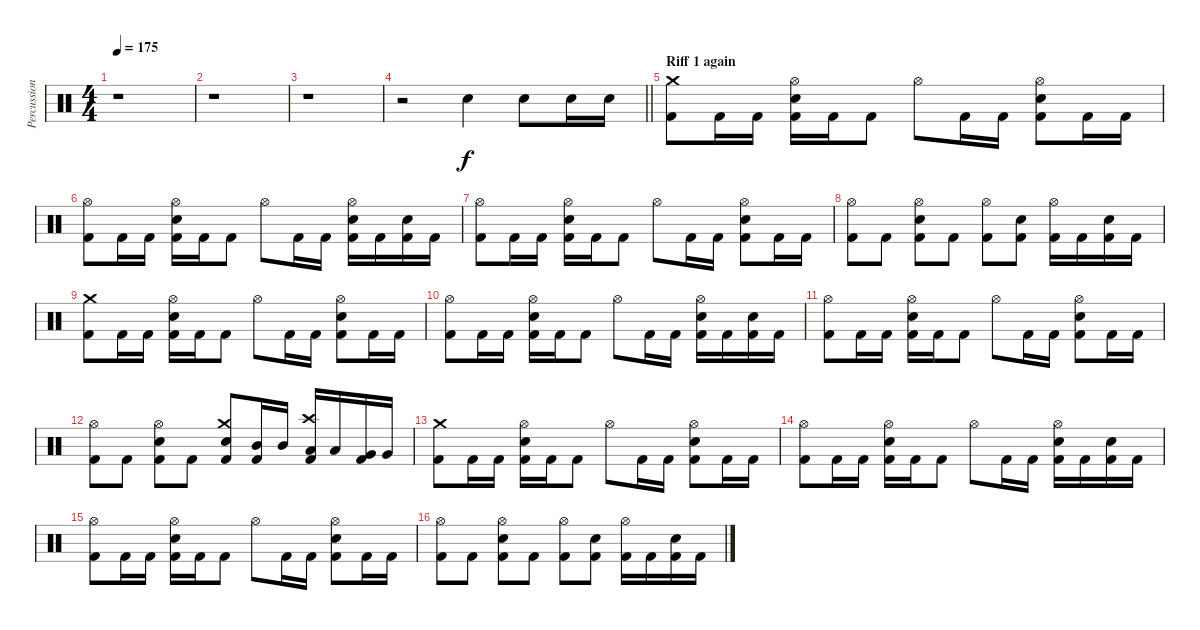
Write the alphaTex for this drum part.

\track ("Percussion" "Percussion") {instrument percussion}
\staff {score}
\articulation defaults
\ts (4 4)
\tempo 175
\clef neutral
\ks c
r.1{dy f} |
r.1 |
r.1 |
\barLineRight lightlight
r.2 "Snare (hit) 2".4 "Snare (hit) 2".8 "Snare (hit) 2".16 "Snare (hit) 2".16 |
\section ("" "Riff 1 again")
("Crash medium (hit)" "Kick (hit) 2").8 "Kick (hit) 2".16 "Kick (hit) 2".16 ("Kick (hit) 2" "Hi-Hat (open)" "Snare (hit) 2").16 "Kick (hit) 2".16 "Kick (hit) 2".8 "Hi-Hat (open)".8 "Kick (hit) 2".16 "Kick (hit) 2".16 ("Kick (hit) 2" "Hi-Hat (open)" "Snare (hit) 2").8 "Kick (hit) 2".16 "Kick (hit) 2".16 |
("Hi-Hat (open)" "Kick (hit) 2").8 "Kick (hit) 2".16 "Kick (hit) 2".16 ("Kick (hit) 2" "Hi-Hat (open)" "Snare (hit) 2").16 "Kick (hit) 2".16 "Kick (hit) 2".8 "Hi-Hat (open)".8 "Kick (hit) 2".16 "Kick (hit) 2".16 ("Kick (hit) 2" "Hi-Hat (open)" "Snare (hit) 2").16 "Kick (hit) 2".16 ("Kick (hit) 2" "Snare (hit) 2").16 "Kick (hit) 2".16 |
("Hi-Hat (open)" "Kick (hit) 2").8 "Kick (hit) 2".16 "Kick (hit) 2".16 ("Kick (hit) 2" "Hi-Hat (open)" "Snare (hit) 2").16 "Kick (hit) 2".16 "Kick (hit) 2".8 "Hi-Hat (open)".8 "Kick (hit) 2".16 "Kick (hit) 2".16 ("Kick (hit) 2" "Hi-Hat (open)" "Snare (hit) 2").8 "Kick (hit) 2".16 "Kick (hit) 2".16 |
("Hi-Hat (open)" "Kick (hit) 2").8 "Kick (hit) 2".8 ("Kick (hit) 2" "Hi-Hat (open)" "Snare (hit) 2").8 "Kick (hit) 2".8 ("Hi-Hat (open)" "Kick (hit) 2").8 ("Kick (hit) 2" "Snare (hit) 2").8 ("Hi-Hat (open)" "Kick (hit) 2").16 "Kick (hit) 2".16 ("Kick (hit) 2" "Snare (hit) 2").16 "Kick (hit) 2".16 |
("Crash medium (hit)" "Kick (hit) 2").8 "Kick (hit) 2".16 "Kick (hit) 2".16 ("Kick (hit) 2" "Hi-Hat (open)" "Snare (hit) 2").16 "Kick (hit) 2".16 "Kick (hit) 2".8 "Hi-Hat (open)".8 "Kick (hit) 2".16 "Kick (hit) 2".16 ("Kick (hit) 2" "Hi-Hat (open)" "Snare (hit) 2").8 "Kick (hit) 2".16 "Kick (hit) 2".16 |
("Hi-Hat (open)" "Kick (hit) 2").8 "Kick (hit) 2".16 "Kick (hit) 2".16 ("Kick (hit) 2" "Hi-Hat (open)" "Snare (hit) 2").16 "Kick (hit) 2".16 "Kick (hit) 2".8 "Hi-Hat (open)".8 "Kick (hit) 2".16 "Kick (hit) 2".16 ("Kick (hit) 2" "Hi-Hat (open)" "Snare (hit) 2").16 "Kick (hit) 2".16 ("Kick (hit) 2" "Snare (hit) 2").16 "Kick (hit) 2".16 |
("Hi-Hat (open)" "Kick (hit) 2").8 "Kick (hit) 2".16 "Kick (hit) 2".16 ("Kick (hit) 2" "Hi-Hat (open)" "Snare (hit) 2").16 "Kick (hit) 2".16 "Kick (hit) 2".8 "Hi-Hat (open)".8 "Kick (hit) 2".16 "Kick (hit) 2".16 ("Kick (hit) 2" "Hi-Hat (open)" "Snare (hit) 2").8 "Kick (hit) 2".16 "Kick (hit) 2".16 |
("Hi-Hat (open)" "Kick (hit) 2").8 "Kick (hit) 2".8 ("Kick (hit) 2" "Hi-Hat (open)" "Snare (hit) 2").8 "Kick (hit) 2".8 ("Kick (hit) 2" "Crash medium (hit)" "Snare (hit) 2").8 ("Kick (hit) 2" "Mid Tom (hit)").16 "Mid Tom (hit)".16 ("Kick (hit) 2" "Crash high (hit)" "Low Tom (hit)").16 "Low Tom (hit)".16 ("Kick (hit) 2" "Very Low Tom (hit)").16 "Very Low Tom (hit)".16 |
("Crash medium (hit)" "Kick (hit) 2").8 "Kick (hit) 2".16 "Kick (hit) 2".16 ("Kick (hit) 2" "Hi-Hat (open)" "Snare (hit) 2").16 "Kick (hit) 2".16 "Kick (hit) 2".8 "Hi-Hat (open)".8 "Kick (hit) 2".16 "Kick (hit) 2".16 ("Kick (hit) 2" "Hi-Hat (open)" "Snare (hit) 2").8 "Kick (hit) 2".16 "Kick (hit) 2".16 |
("Hi-Hat (open)" "Kick (hit) 2").8 "Kick (hit) 2".16 "Kick (hit) 2".16 ("Kick (hit) 2" "Hi-Hat (open)" "Snare (hit) 2").16 "Kick (hit) 2".16 "Kick (hit) 2".8 "Hi-Hat (open)".8 "Kick (hit) 2".16 "Kick (hit) 2".16 ("Kick (hit) 2" "Hi-Hat (open)" "Snare (hit) 2").16 "Kick (hit) 2".16 ("Kick (hit) 2" "Snare (hit) 2").16 "Kick (hit) 2".16 |
("Hi-Hat (open)" "Kick (hit) 2").8 "Kick (hit) 2".16 "Kick (hit) 2".16 ("Kick (hit) 2" "Hi-Hat (open)" "Snare (hit) 2").16 "Kick (hit) 2".16 "Kick (hit) 2".8 "Hi-Hat (open)".8 "Kick (hit) 2".16 "Kick (hit) 2".16 ("Kick (hit) 2" "Hi-Hat (open)" "Snare (hit) 2").8 "Kick (hit) 2".16 "Kick (hit) 2".16 |
("Hi-Hat (open)" "Kick (hit) 2").8 "Kick (hit) 2".8 ("Kick (hit) 2" "Hi-Hat (open)" "Snare (hit) 2").8 "Kick (hit) 2".8 ("Hi-Hat (open)" "Kick (hit) 2").8 ("Kick (hit) 2" "Snare (hit) 2").8 ("Hi-Hat (open)" "Kick (hit) 2").16 "Kick (hit) 2".16 ("Kick (hit) 2" "Snare (hit) 2").16 "Kick (hit) 2".16
